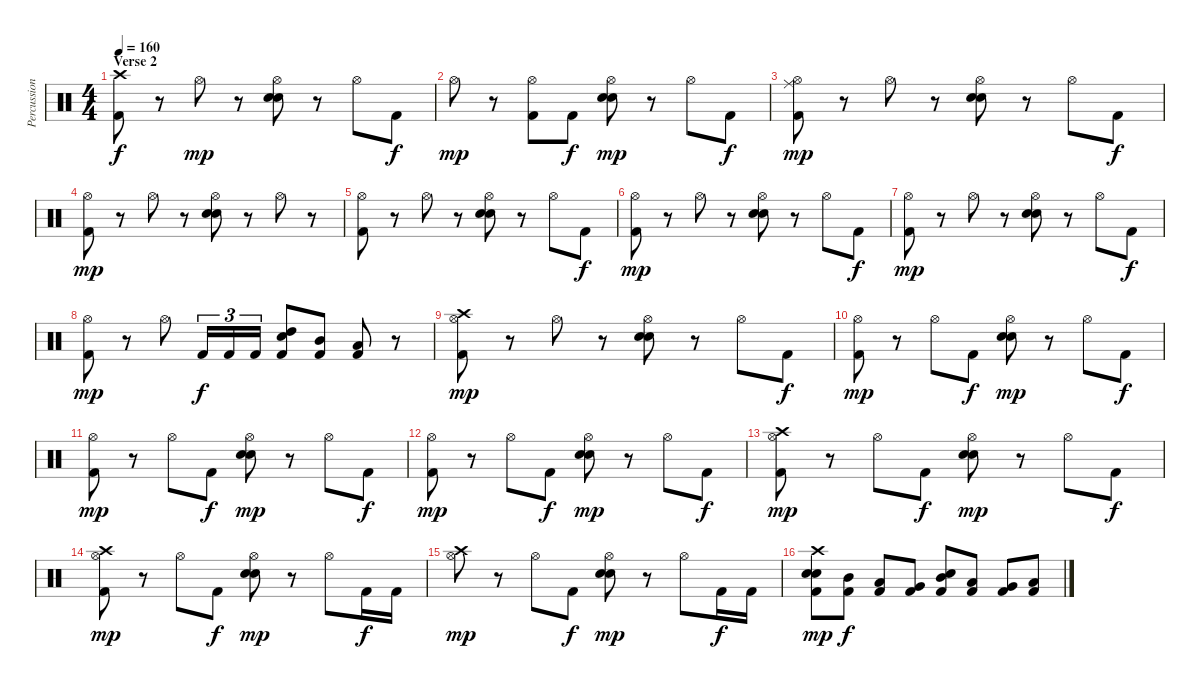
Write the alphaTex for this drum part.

\track ("Percussion" "Percussion") {instrument percussion}
\staff {score}
\articulation defaults
\ts (4 4)
\section ("" "Verse 2")
\tempo 160
\clef neutral
\ks c
("Crash high (hit)" "Kick (hit) 2").8{dy f} r.8 "Hi-Hat (open)".8{dy mp} r.8 ("Hi-Hat (open)" "Snare (hit) 2" "Electric Snare (hit)").8 r.8 "Hi-Hat (open)".8 "Kick (hit) 2".8{dy f} |
"Hi-Hat (open)".8{dy mp} r.8 ("Hi-Hat (open)" "Kick (hit) 2").8 "Kick (hit) 2".8{dy f} ("Hi-Hat (open)" "Snare (hit) 2" "Electric Snare (hit)").8{dy mp} r.8 "Hi-Hat (open)".8 "Kick (hit) 2".8{dy f} |
("Ride (middle)" "Hi-Hat (open)" "Kick (hit) 2").8{dy mp} r.8 "Hi-Hat (open)".8 r.8 ("Hi-Hat (open)" "Snare (hit) 2" "Electric Snare (hit)").8 r.8 "Hi-Hat (open)".8 "Kick (hit) 2".8{dy f} |
("Hi-Hat (open)" "Kick (hit) 2").8{dy mp} r.8 "Hi-Hat (open)".8 r.8 ("Hi-Hat (open)" "Snare (hit) 2" "Electric Snare (hit)").8 r.8 "Hi-Hat (open)".8 r.8 |
("Hi-Hat (open)" "Kick (hit) 2").8 r.8 "Hi-Hat (open)".8 r.8 ("Hi-Hat (open)" "Snare (hit) 2" "Electric Snare (hit)").8 r.8 "Hi-Hat (open)".8 "Kick (hit) 2".8{dy f} |
("Hi-Hat (open)" "Kick (hit) 2").8{dy mp} r.8 "Hi-Hat (open)".8 r.8 ("Hi-Hat (open)" "Snare (hit) 2" "Electric Snare (hit)").8 r.8 "Hi-Hat (open)".8 "Kick (hit) 2".8{dy f} |
("Hi-Hat (open)" "Kick (hit) 2").8{dy mp} r.8 "Hi-Hat (open)".8 r.8 ("Hi-Hat (open)" "Snare (hit) 2" "Electric Snare (hit)").8 r.8 "Hi-Hat (open)".8 "Kick (hit) 2".8{dy f} |
("Hi-Hat (open)" "Kick (hit) 2").8{dy mp} r.8 "Hi-Hat (open)".8 "Kick (hit) 2".16{tu (3 2) dy f} "Kick (hit) 2".16{tu (3 2)} "Kick (hit) 2".16{tu (3 2)} ("High Tom (hit)" "Electric Snare (hit)" "Kick (hit) 2").8 ("Mid Tom (hit)" "Kick (hit) 2").8 ("Low Tom (hit)" "Kick (hit) 2").8 r.8 |
("Crash high (hit)" "Hi-Hat (open)" "Kick (hit) 2").8{dy mp} r.8 "Hi-Hat (open)".8 r.8 ("Hi-Hat (open)" "Snare (hit) 2" "Electric Snare (hit)").8 r.8 "Hi-Hat (open)".8 "Kick (hit) 2".8{dy f} |
("Hi-Hat (open)" "Kick (hit) 2").8{dy mp} r.8 "Hi-Hat (open)".8 "Kick (hit) 2".8{dy f} ("Hi-Hat (open)" "Snare (hit) 2" "Electric Snare (hit)").8{dy mp} r.8 "Hi-Hat (open)".8 "Kick (hit) 2".8{dy f} |
("Hi-Hat (open)" "Kick (hit) 2").8{dy mp} r.8 "Hi-Hat (open)".8 "Kick (hit) 2".8{dy f} ("Hi-Hat (open)" "Snare (hit) 2" "Electric Snare (hit)").8{dy mp} r.8 "Hi-Hat (open)".8 "Kick (hit) 2".8{dy f} |
("Hi-Hat (open)" "Kick (hit) 2").8{dy mp} r.8 "Hi-Hat (open)".8 "Kick (hit) 2".8{dy f} ("Hi-Hat (open)" "Snare (hit) 2" "Electric Snare (hit)").8{dy mp} r.8 "Hi-Hat (open)".8 "Kick (hit) 2".8{dy f} |
("Crash high (hit)" "Hi-Hat (open)" "Kick (hit) 2").8{dy mp} r.8 "Hi-Hat (open)".8 "Kick (hit) 2".8{dy f} ("Hi-Hat (open)" "Snare (hit) 2" "Electric Snare (hit)").8{dy mp} r.8 "Hi-Hat (open)".8 "Kick (hit) 2".8{dy f} |
("Crash high (hit)" "Hi-Hat (open)" "Kick (hit) 2").8{dy mp} r.8 "Hi-Hat (open)".8 "Kick (hit) 2".8{dy f} ("Hi-Hat (open)" "Snare (hit) 2" "Electric Snare (hit)").8{dy mp} r.8 "Hi-Hat (open)".8 "Kick (hit) 2".16{dy f} "Kick (hit) 2".16 |
("Crash high (hit)" "Hi-Hat (open)").8{dy mp} r.8 "Hi-Hat (open)".8 "Kick (hit) 2".8{dy f} ("Hi-Hat (open)" "Snare (hit) 2" "Electric Snare (hit)").8{dy mp} r.8 "Hi-Hat (open)".8 "Kick (hit) 2".16{dy f} "Kick (hit) 2".16 |
("Crash high (hit)" "Snare (hit) 2" "Electric Snare (hit)" "Kick (hit) 2").8{dy mp} ("Mid Tom (hit)" "Kick (hit) 2").8{dy f} ("Low Tom (hit)" "Kick (hit) 2").8 ("Very Low Tom (hit)" "Kick (hit) 2").8 ("Mid Tom (hit)" "Electric Snare (hit)" "Kick (hit) 2").8 ("Low Tom (hit)" "Kick (hit) 2").8 ("Very Low Tom (hit)" "Kick (hit) 2").8 ("Low Floor Tom (hit)" "Kick (hit) 2").8
